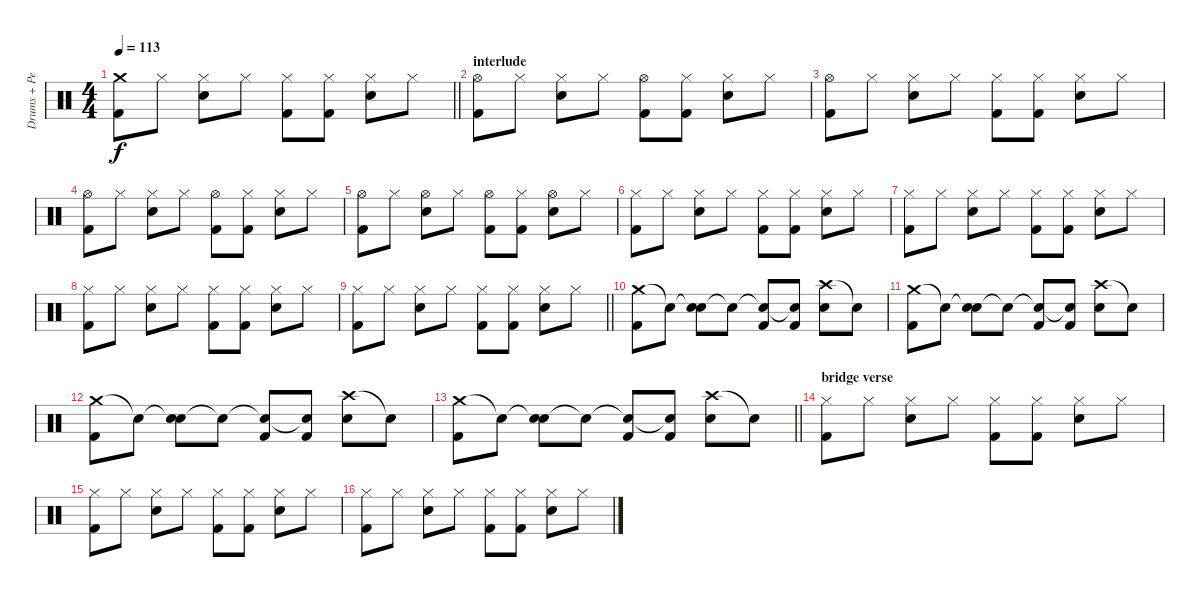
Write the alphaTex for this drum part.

\track ("Drums + Percussion" "Drums + Pe") {instrument percussion}
\staff {score}
\articulation defaults
\ts (4 4)
\tempo 113
\clef neutral
\barLineRight lightlight
\ks c
("Crash medium (hit)" "Kick (hit) 2").8{dy f} "Hi-Hat (closed)".8 ("Hi-Hat (closed)" "Snare (hit) 2").8 "Hi-Hat (closed)".8 ("Hi-Hat (closed)" "Kick (hit) 2").8 ("Hi-Hat (closed)" "Kick (hit) 2").8 ("Hi-Hat (closed)" "Snare (hit) 2").8 "Hi-Hat (closed)".8 |
\section ("" "interlude")
("Hi-Hat (open)" "Kick (hit) 2").8 "Hi-Hat (closed)".8 ("Hi-Hat (closed)" "Snare (hit) 2").8 "Hi-Hat (closed)".8 ("Hi-Hat (open)" "Kick (hit) 2").8 ("Hi-Hat (closed)" "Kick (hit) 2").8 ("Hi-Hat (closed)" "Snare (hit) 2").8 "Hi-Hat (closed)".8 |
("Hi-Hat (open)" "Kick (hit) 2").8 "Hi-Hat (closed)".8 ("Hi-Hat (closed)" "Snare (hit) 2").8 "Hi-Hat (closed)".8 ("Hi-Hat (closed)" "Kick (hit) 2").8 ("Hi-Hat (closed)" "Kick (hit) 2").8 ("Hi-Hat (closed)" "Snare (hit) 2").8 "Hi-Hat (closed)".8 |
("Hi-Hat (open)" "Kick (hit) 2").8 "Hi-Hat (closed)".8 ("Hi-Hat (closed)" "Snare (hit) 2").8 "Hi-Hat (closed)".8 ("Hi-Hat (open)" "Kick (hit) 2").8 ("Hi-Hat (closed)" "Kick (hit) 2").8 ("Hi-Hat (closed)" "Snare (hit) 2").8 "Hi-Hat (closed)".8 |
("Hi-Hat (open)" "Kick (hit) 2").8 "Hi-Hat (closed)".8 ("Hi-Hat (open)" "Snare (hit) 2").8 "Hi-Hat (closed)".8 ("Hi-Hat (open)" "Kick (hit) 2").8 ("Hi-Hat (closed)" "Kick (hit) 2").8 ("Hi-Hat (open)" "Snare (hit) 2").8 "Hi-Hat (closed)".8 |
("Hi-Hat (closed)" "Kick (hit) 2").8 "Hi-Hat (closed)".8 ("Hi-Hat (closed)" "Snare (hit) 2").8 "Hi-Hat (closed)".8 ("Hi-Hat (closed)" "Kick (hit) 2").8 ("Hi-Hat (closed)" "Kick (hit) 2").8 ("Hi-Hat (closed)" "Snare (hit) 2").8 "Hi-Hat (closed)".8 |
("Hi-Hat (closed)" "Kick (hit) 2").8 "Hi-Hat (closed)".8 ("Hi-Hat (closed)" "Snare (hit) 2").8 "Hi-Hat (closed)".8 ("Hi-Hat (closed)" "Kick (hit) 2").8 ("Hi-Hat (closed)" "Kick (hit) 2").8 ("Hi-Hat (closed)" "Snare (hit) 2").8 "Hi-Hat (closed)".8 |
("Hi-Hat (closed)" "Kick (hit) 2").8 "Hi-Hat (closed)".8 ("Hi-Hat (closed)" "Snare (hit) 2").8 "Hi-Hat (closed)".8 ("Hi-Hat (closed)" "Kick (hit) 2").8 ("Hi-Hat (closed)" "Kick (hit) 2").8 ("Hi-Hat (closed)" "Snare (hit) 2").8 "Hi-Hat (closed)".8 |
\barLineRight lightlight
("Hi-Hat (closed)" "Kick (hit) 2").8 "Hi-Hat (closed)".8 ("Hi-Hat (closed)" "Snare (hit) 2").8 "Hi-Hat (closed)".8 ("Hi-Hat (closed)" "Kick (hit) 2").8 ("Hi-Hat (closed)" "Kick (hit) 2").8 ("Hi-Hat (closed)" "Snare (hit) 2").8 "Hi-Hat (closed)".8 |
("Crash medium (hit)" "Kick (hit) 2").8 "Snare (hit)"{t}.8 ("Snare (hit)"{t} "Snare (hit) 2").8 "Snare (hit)"{t}.8 ("Snare (hit)"{t} "Kick (hit) 2").8 ("Snare (hit)"{t} "Kick (hit) 2").8 ("Crash high (hit)" "Snare (hit) 2").8 "Snare (hit)"{t}.8 |
("Crash medium (hit)" "Kick (hit) 2").8 "Snare (hit)"{t}.8 ("Snare (hit)"{t} "Snare (hit) 2").8 "Snare (hit)"{t}.8 ("Snare (hit)"{t} "Kick (hit) 2").8 ("Snare (hit)"{t} "Kick (hit) 2").8 ("Crash high (hit)" "Snare (hit) 2").8 "Snare (hit)"{t}.8 |
("Crash medium (hit)" "Kick (hit) 2").8 "Snare (hit)"{t}.8 ("Snare (hit)"{t} "Snare (hit) 2").8 "Snare (hit)"{t}.8 ("Snare (hit)"{t} "Kick (hit) 2").8 ("Snare (hit)"{t} "Kick (hit) 2").8 ("Crash high (hit)" "Snare (hit) 2").8 "Snare (hit)"{t}.8 |
\barLineRight lightlight
("Crash medium (hit)" "Kick (hit) 2").8 "Snare (hit)"{t}.8 ("Snare (hit)"{t} "Snare (hit) 2").8 "Snare (hit)"{t}.8 ("Snare (hit)"{t} "Kick (hit) 2").8 ("Snare (hit)"{t} "Kick (hit) 2").8 ("Crash high (hit)" "Snare (hit) 2").8 "Snare (hit)"{t}.8 |
\section ("" "bridge verse")
("Hi-Hat (closed)" "Kick (hit) 2").8 "Hi-Hat (closed)".8 ("Hi-Hat (closed)" "Snare (hit) 2").8 "Hi-Hat (closed)".8 ("Hi-Hat (closed)" "Kick (hit) 2").8 ("Hi-Hat (closed)" "Kick (hit) 2").8 ("Hi-Hat (closed)" "Snare (hit) 2").8 "Hi-Hat (closed)".8 |
("Hi-Hat (closed)" "Kick (hit) 2").8 "Hi-Hat (closed)".8 ("Hi-Hat (closed)" "Snare (hit) 2").8 "Hi-Hat (closed)".8 ("Hi-Hat (closed)" "Kick (hit) 2").8 ("Hi-Hat (closed)" "Kick (hit) 2").8 ("Hi-Hat (closed)" "Snare (hit) 2").8 "Hi-Hat (closed)".8 |
("Hi-Hat (closed)" "Kick (hit) 2").8 "Hi-Hat (closed)".8 ("Hi-Hat (closed)" "Snare (hit) 2").8 "Hi-Hat (closed)".8 ("Hi-Hat (closed)" "Kick (hit) 2").8 ("Hi-Hat (closed)" "Kick (hit) 2").8 ("Hi-Hat (closed)" "Snare (hit) 2").8 "Hi-Hat (closed)".8
